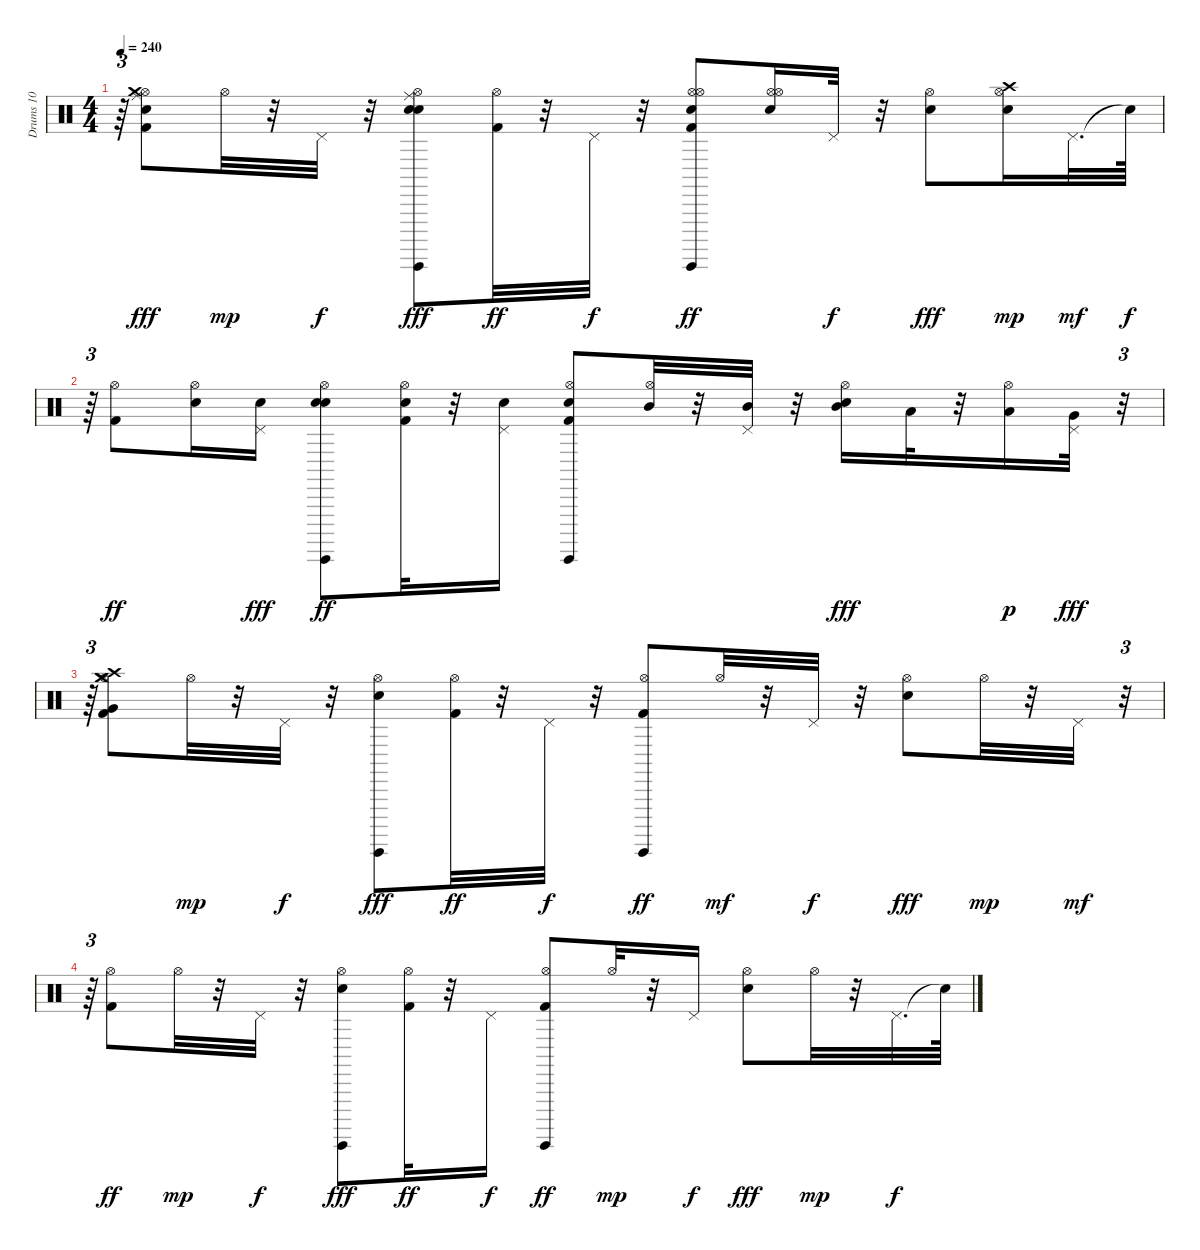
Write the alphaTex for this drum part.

\track ("Drums 10" "Drums 10") {instrument percussion}
\staff {score}
\articulation defaults
\ts (4 4)
\tempo 240
\clef neutral
\ks c
r.64{tu (3 2) dy f} ("Hi-Hat (open)" "Kick (hit) 2" "Electric Snare (hit)" "Ride (middle)" "Crash medium (hit)").8{dy fff} "Hi-Hat (open)".32{dy mp} r.32 "Pedal Hi-Hat (hit)".32{dy f} r.32 ("Hi-Hat (open)" "Guiro (hit)" "Snare (hit) 2" "Electric Snare (hit)" "Ride (middle)").8{dy fff} ("Hi-Hat (open)" "Kick (hit) 2").32{dy ff} r.32 "Pedal Hi-Hat (hit)".32{dy f} r.32 ("Hi-Hat (open)" "Guiro (hit)" "Kick (hit) 2" "Electric Snare (hit)" "Hi-Hat (open)").8{dy ff} ("Hi-Hat (open)" "Electric Snare (hit)" "Hi-Hat (open)").16 "Pedal Hi-Hat (hit)".32{dy f} r.32 ("Hi-Hat (open)" "Snare (hit) 2").8{dy fff} ("Hi-Hat (open)" "Electric Snare (hit)" "Crash high (hit)").16{dy mp} "Pedal Hi-Hat (hit)".32{d dy mf} "Snare (hit)"{t}.64{dy f} |
r.64{tu (3 2)} ("Hi-Hat (open)" "Kick (hit) 2").8{dy ff} ("Hi-Hat (open)" "Electric Snare (hit)").16 ("Pedal Hi-Hat (hit)" "Electric Snare (hit)").16{dy fff} ("Hi-Hat (open)" "Guiro (hit)" "Snare (hit) 2" "Electric Snare (hit)").8{dy ff} ("Hi-Hat (open)" "Kick (hit) 2" "Electric Snare (hit)").32 r.32 ("Pedal Hi-Hat (hit)" "Electric Snare (hit)").16 ("Hi-Hat (open)" "Guiro (hit)" "Kick (hit) 2" "Electric Snare (hit)").8 ("Hi-Hat (open)" "Mid Tom (hit)").32 r.32 ("Pedal Hi-Hat (hit)" "Mid Tom (hit)").32 r.32 ("Hi-Hat (open)" "Snare (hit) 2" "Mid Tom (hit)").16{dy fff} "Low Tom (hit)".32 r.32 ("Hi-Hat (open)" "Low Tom (hit)").16{dy p} ("Pedal Hi-Hat (hit)" "Very Low Tom (hit)").32{dy fff} r.32{tu (3 2)} |
r.64{tu (3 2)} ("Crash medium (hit)" "Hi-Hat (open)" "Kick (hit) 2" "Very Low Tom (hit)" "Crash medium (hit)" "Crash high (hit)").8 "Hi-Hat (open)".32{dy mp} r.32 "Pedal Hi-Hat (hit)".32{dy f} r.32 ("Hi-Hat (open)" "Guiro (hit)" "Snare (hit) 2").8{dy fff} ("Hi-Hat (open)" "Kick (hit) 2").32{dy ff} r.32 "Pedal Hi-Hat (hit)".32{dy f} r.32 ("Hi-Hat (open)" "Guiro (hit)" "Kick (hit) 2").8{dy ff} "Hi-Hat (open)".32{dy mf} r.32 "Pedal Hi-Hat (hit)".32{dy f} r.32 ("Hi-Hat (open)" "Snare (hit) 2").8{dy fff} "Hi-Hat (open)".32{dy mp} r.32 "Pedal Hi-Hat (hit)".32{dy mf} r.32{tu (3 2)} |
r.64{tu (3 2)} ("Hi-Hat (open)" "Kick (hit) 2").8{dy ff} "Hi-Hat (open)".32{dy mp} r.32 "Pedal Hi-Hat (hit)".32{dy f} r.32 ("Hi-Hat (open)" "Guiro (hit)" "Snare (hit) 2").8{dy fff} ("Hi-Hat (open)" "Kick (hit) 2").32{dy ff} r.32 "Pedal Hi-Hat (hit)".16{dy f} ("Hi-Hat (open)" "Guiro (hit)" "Kick (hit) 2").8{dy ff} "Hi-Hat (open)".32{dy mp} r.32 "Pedal Hi-Hat (hit)".16{dy f} ("Hi-Hat (open)" "Snare (hit) 2").8{dy fff} "Hi-Hat (open)".32{dy mp} r.32 "Pedal Hi-Hat (hit)".32{d dy f} "Snare (hit)"{t}.64
